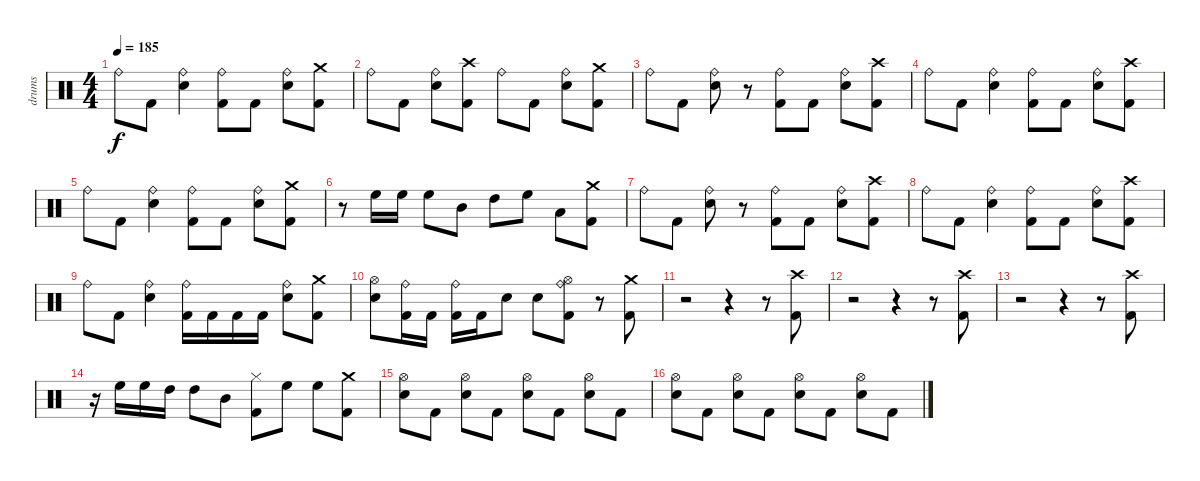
\track ("drums" "drums") {instrument percussion}
\staff {score}
\articulation defaults
\ts (4 4)
\tempo 185
\clef neutral
\ks c "Ride (bell)".8{dy f} "Kick (hit) 2".8
("Ride (bell)" "Electric Snare (hit)").4 ("Ride (bell)" "Kick (hit) 2").8 "Kick (hit) 2".8 ("Ride (bell)" "Electric Snare (hit)").8 ("Crash medium (hit)" "Kick (hit) 2").8 |
"Ride (bell)".8 "Kick (hit) 2".8 ("Ride (bell)" "Electric Snare (hit)").8 ("Crash high (hit)" "Kick (hit) 2").8 "Ride (bell)".8 "Kick (hit) 2".8 ("Ride (bell)" "Electric Snare (hit)").8 ("Crash medium (hit)" "Kick (hit) 2").8 |
"Ride (bell)".8 "Kick (hit) 2".8 ("Ride (bell)" "Electric Snare (hit)").8 r.8 ("Ride (bell)" "Kick (hit) 2").8 "Kick (hit) 2".8 ("Ride (bell)" "Electric Snare (hit)").8 ("Crash high (hit)" "Kick (hit) 2").8 |
"Ride (bell)".8 "Kick (hit) 2".8 ("Ride (bell)" "Electric Snare (hit)").4 ("Ride (bell)" "Kick (hit) 2").8 "Kick (hit) 2".8 ("Ride (bell)" "Electric Snare (hit)").8 ("Crash high (hit)" "Kick (hit) 2").8 |
"Ride (bell)".8 "Kick (hit) 2".8 ("Ride (bell)" "Electric Snare (hit)").4 ("Ride (bell)" "Kick (hit) 2").8 "Kick (hit) 2".8 ("Ride (bell)" "Electric Snare (hit)").8 ("Crash medium (hit)" "Kick (hit) 2").8 |
r.8 "High Floor Tom (hit)".16 "High Floor Tom (hit)".16 "High Floor Tom (hit)".8 "Mid Tom (hit)".8 "High Tom (hit)".8 "High Floor Tom (hit)".8 "Low Tom (hit)".8 ("Crash medium (hit)" "Kick (hit) 2").8 |
"Ride (bell)".8 "Kick (hit) 2".8 ("Ride (bell)" "Electric Snare (hit)").8 r.8 ("Ride (bell)" "Kick (hit) 2").8 "Kick (hit) 2".8 ("Ride (bell)" "Electric Snare (hit)").8 ("Crash high (hit)" "Kick (hit) 2").8 |
"Ride (bell)".8 "Kick (hit) 2".8 ("Ride (bell)" "Electric Snare (hit)").4 ("Ride (bell)" "Kick (hit) 2").8 "Kick (hit) 2".8 ("Ride (bell)" "Electric Snare (hit)").8 ("Crash high (hit)" "Kick (hit) 2").8 |
"Ride (bell)".8 "Kick (hit) 2".8 ("Ride (bell)" "Electric Snare (hit)").4 ("Ride (bell)" "Kick (hit) 2").16 "Kick (hit) 2".16 "Kick (hit) 2".16 "Kick (hit) 2".16 ("Ride (bell)" "Electric Snare (hit)").8 ("Crash medium (hit)" "Kick (hit) 2").8 |
("Hi-Hat (open)" "Electric Snare (hit)").8 ("Ride (bell)" "Kick (hit) 2").16 "Kick (hit) 2".16 ("Ride (bell)" "Kick (hit) 2").16 "Kick (hit) 2".16 "Electric Snare (hit)".8 "Electric Snare (hit)".8 ("Hi-Hat (open)" "Ride (bell)" "Kick (hit) 2").8 r.8 ("Crash medium (hit)" "Kick (hit) 2").8 |
r.2 r.4 r.8 ("Crash high (hit)" "Kick (hit) 2").8 |
r.2 r.4 r.8 ("Crash high (hit)" "Kick (hit) 2").8 |
r.2 r.4 r.8 ("Crash high (hit)" "Kick (hit) 2").8 |
r.16 "High Floor Tom (hit)".16 "High Floor Tom (hit)".16 "High Tom (hit)".16 "High Tom (hit)".8 "Mid Tom (hit)".8 ("Hi-Hat (closed)" "Kick (hit) 2").8 "High Floor Tom (hit)".8 "High Floor Tom (hit)".8 ("Crash medium (hit)" "Kick (hit) 2").8 |
("Hi-Hat (open)" "Electric Snare (hit)").8 "Kick (hit) 2".8 ("Hi-Hat (open)" "Electric Snare (hit)").8 "Kick (hit) 2".8 ("Hi-Hat (open)" "Electric Snare (hit)").8 "Kick (hit) 2".8 ("Hi-Hat (open)" "Electric Snare (hit)").8 "Kick (hit) 2".8 |
("Hi-Hat (open)" "Electric Snare (hit)").8 "Kick (hit) 2".8 ("Hi-Hat (open)" "Electric Snare (hit)").8 "Kick (hit) 2".8 ("Hi-Hat (open)" "Electric Snare (hit)").8 "Kick (hit) 2".8 ("Hi-Hat (open)" "Electric Snare (hit)").8 "Kick (hit) 2".8
